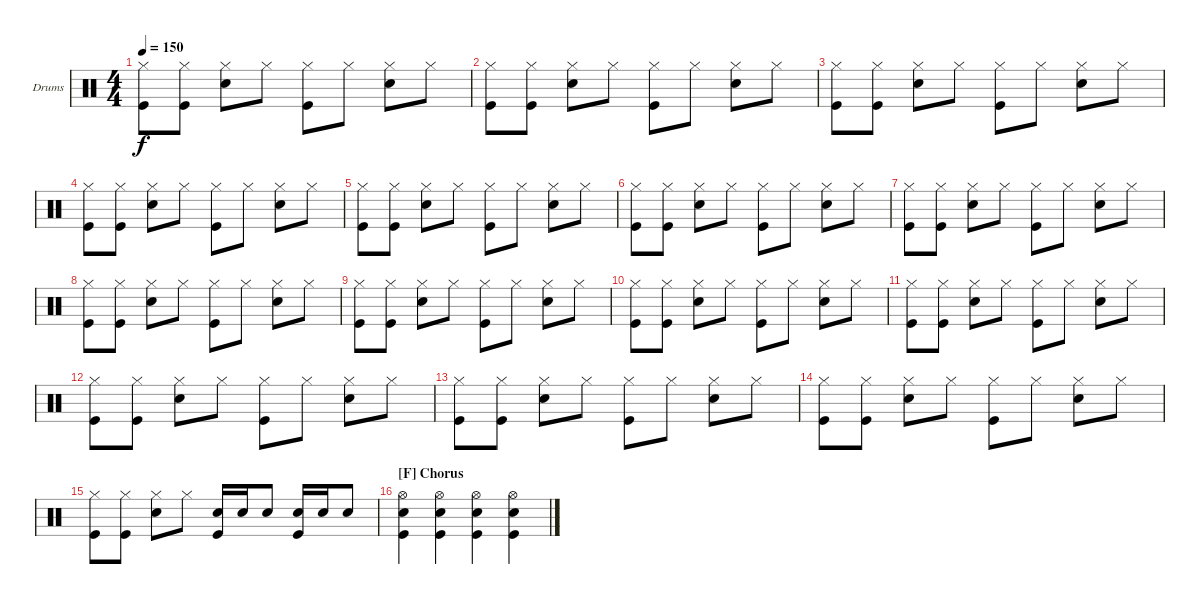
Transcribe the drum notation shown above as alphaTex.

\defaultSystemsLayout 4
\bracketExtendMode groupsimilarinstruments
\firstSystemTrackNameOrientation horizontal
\otherSystemsTrackNameOrientation horizontal
\track ("Drums" "Drums") {instrument percussion}
\staff {score}
\articulation defaults
\ts (4 4)
\tempo 150
\clef neutral
\scale
0.333333
\ks c
("Kick (hit)" "Hi-Hat (closed)").8{dy f} ("Kick (hit)" "Hi-Hat (closed)").8 ("Hi-Hat (closed)" "Snare (hit) 2").8 "Hi-Hat (closed)".8 ("Kick (hit)" "Hi-Hat (closed)").8 "Hi-Hat (closed)".8 ("Hi-Hat (closed)" "Snare (hit) 2").8 "Hi-Hat (closed)".8 |
\scale
0.333333 ("Kick (hit)" "Hi-Hat (closed)").8 ("Kick (hit)" "Hi-Hat (closed)").8 ("Hi-Hat (closed)" "Snare (hit) 2").8 "Hi-Hat (closed)".8 ("Kick (hit)" "Hi-Hat (closed)").8 "Hi-Hat (closed)".8 ("Hi-Hat (closed)" "Snare (hit) 2").8 "Hi-Hat (closed)".8 |
\scale
0.333333 ("Kick (hit)" "Hi-Hat (closed)").8 ("Kick (hit)" "Hi-Hat (closed)").8 ("Hi-Hat (closed)" "Snare (hit) 2").8 "Hi-Hat (closed)".8 ("Kick (hit)" "Hi-Hat (closed)").8 "Hi-Hat (closed)".8 ("Hi-Hat (closed)" "Snare (hit) 2").8 "Hi-Hat (closed)".8 |
\scale
0.333333 ("Kick (hit)" "Hi-Hat (closed)").8 ("Kick (hit)" "Hi-Hat (closed)").8 ("Hi-Hat (closed)" "Snare (hit) 2").8 "Hi-Hat (closed)".8 ("Kick (hit)" "Hi-Hat (closed)").8 "Hi-Hat (closed)".8 ("Hi-Hat (closed)" "Snare (hit) 2").8 "Hi-Hat (closed)".8 |
\scale
0.333333 ("Kick (hit)" "Hi-Hat (closed)").8 ("Kick (hit)" "Hi-Hat (closed)").8 ("Hi-Hat (closed)" "Snare (hit) 2").8 "Hi-Hat (closed)".8 ("Kick (hit)" "Hi-Hat (closed)").8 "Hi-Hat (closed)".8 ("Hi-Hat (closed)" "Snare (hit) 2").8 "Hi-Hat (closed)".8 |
\scale
0.333333 ("Kick (hit)" "Hi-Hat (closed)").8 ("Kick (hit)" "Hi-Hat (closed)").8 ("Hi-Hat (closed)" "Snare (hit) 2").8 "Hi-Hat (closed)".8 ("Kick (hit)" "Hi-Hat (closed)").8 "Hi-Hat (closed)".8 ("Hi-Hat (closed)" "Snare (hit) 2").8 "Hi-Hat (closed)".8 |
\scale
0.333333 ("Kick (hit)" "Hi-Hat (closed)").8 ("Kick (hit)" "Hi-Hat (closed)").8 ("Hi-Hat (closed)" "Snare (hit) 2").8 "Hi-Hat (closed)".8 ("Kick (hit)" "Hi-Hat (closed)").8 "Hi-Hat (closed)".8 ("Hi-Hat (closed)" "Snare (hit) 2").8 "Hi-Hat (closed)".8 |
\scale
0.333333 ("Kick (hit)" "Hi-Hat (closed)").8 ("Kick (hit)" "Hi-Hat (closed)").8 ("Hi-Hat (closed)" "Snare (hit) 2").8 "Hi-Hat (closed)".8 ("Kick (hit)" "Hi-Hat (closed)").8 "Hi-Hat (closed)".8 ("Hi-Hat (closed)" "Snare (hit) 2").8 "Hi-Hat (closed)".8 |
\scale
0.333333 ("Kick (hit)" "Hi-Hat (closed)").8 ("Kick (hit)" "Hi-Hat (closed)").8 ("Hi-Hat (closed)" "Snare (hit) 2").8 "Hi-Hat (closed)".8 ("Kick (hit)" "Hi-Hat (closed)").8 "Hi-Hat (closed)".8 ("Hi-Hat (closed)" "Snare (hit) 2").8 "Hi-Hat (closed)".8 |
\scale
0.333333 ("Kick (hit)" "Hi-Hat (closed)").8 ("Kick (hit)" "Hi-Hat (closed)").8 ("Hi-Hat (closed)" "Snare (hit) 2").8 "Hi-Hat (closed)".8 ("Kick (hit)" "Hi-Hat (closed)").8 "Hi-Hat (closed)".8 ("Hi-Hat (closed)" "Snare (hit) 2").8 "Hi-Hat (closed)".8 |
\scale
0.333333 ("Kick (hit)" "Hi-Hat (closed)").8 ("Kick (hit)" "Hi-Hat (closed)").8 ("Hi-Hat (closed)" "Snare (hit) 2").8 "Hi-Hat (closed)".8 ("Kick (hit)" "Hi-Hat (closed)").8 "Hi-Hat (closed)".8 ("Hi-Hat (closed)" "Snare (hit) 2").8 "Hi-Hat (closed)".8 |
\scale
0.333333 ("Kick (hit)" "Hi-Hat (closed)").8 ("Kick (hit)" "Hi-Hat (closed)").8 ("Hi-Hat (closed)" "Snare (hit) 2").8 "Hi-Hat (closed)".8 ("Kick (hit)" "Hi-Hat (closed)").8 "Hi-Hat (closed)".8 ("Hi-Hat (closed)" "Snare (hit) 2").8 "Hi-Hat (closed)".8 |
\scale
0.333333 ("Kick (hit)" "Hi-Hat (closed)").8 ("Kick (hit)" "Hi-Hat (closed)").8 ("Hi-Hat (closed)" "Snare (hit) 2").8 "Hi-Hat (closed)".8 ("Kick (hit)" "Hi-Hat (closed)").8 "Hi-Hat (closed)".8 ("Hi-Hat (closed)" "Snare (hit) 2").8 "Hi-Hat (closed)".8 |
\scale
0.333333 ("Kick (hit)" "Hi-Hat (closed)").8 ("Kick (hit)" "Hi-Hat (closed)").8 ("Hi-Hat (closed)" "Snare (hit) 2").8 "Hi-Hat (closed)".8 ("Kick (hit)" "Hi-Hat (closed)").8 "Hi-Hat (closed)".8 ("Hi-Hat (closed)" "Snare (hit) 2").8 "Hi-Hat (closed)".8 |
\scale
0.333333 ("Kick (hit)" "Hi-Hat (closed)").8 ("Kick (hit)" "Hi-Hat (closed)").8 ("Hi-Hat (closed)" "Snare (hit) 2").8 "Hi-Hat (closed)".8 ("Snare (hit) 2" "Kick (hit)").16 "Snare (hit) 2".16 "Snare (hit) 2".8 ("Snare (hit) 2" "Kick (hit)").16 "Snare (hit) 2".16 "Snare (hit) 2".8 |
\section ("F" "Chorus")
\scale
0.333333 ("Kick (hit)" "Hi-Hat (open)" "Snare (hit) 2").4 ("Kick (hit)" "Hi-Hat (open)" "Snare (hit) 2").4 ("Kick (hit)" "Hi-Hat (open)" "Snare (hit) 2").4 ("Kick (hit)" "Hi-Hat (open)" "Snare (hit) 2").4
